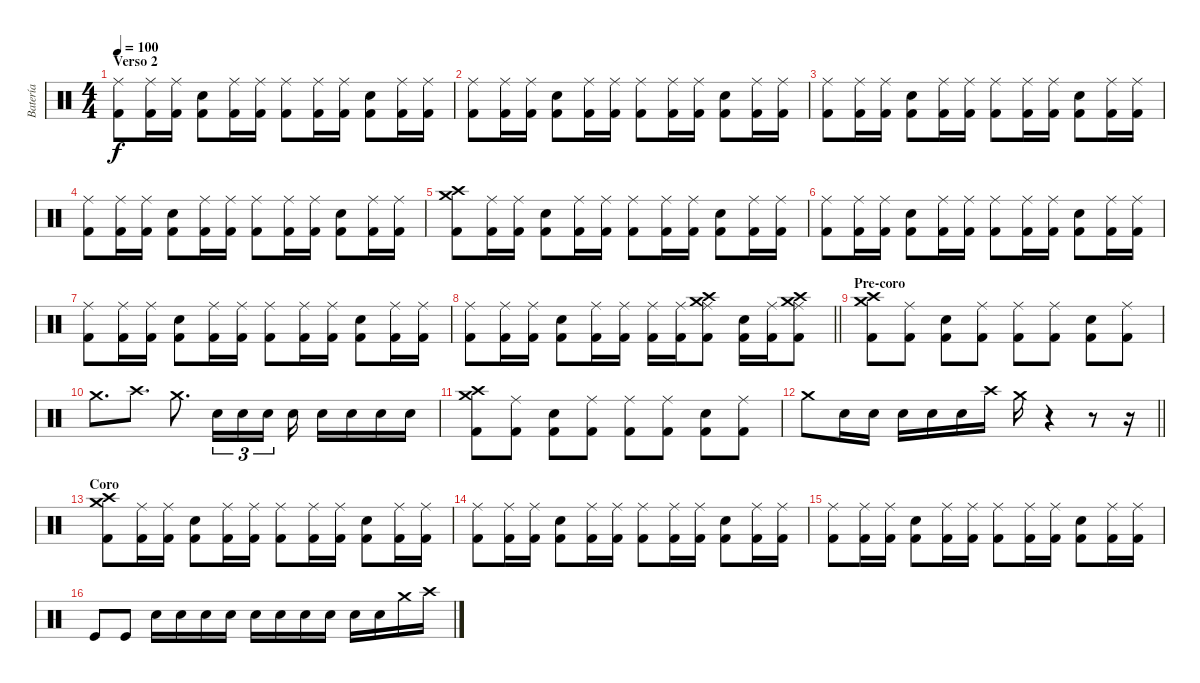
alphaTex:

\track ("Batería" "Batería") {instrument percussion}
\staff {score}
\articulation defaults
\ts (4 4)
\section ("" "Verso 2")
\tempo 100
\clef neutral
\ks c
("Ride (middle)" "Kick (hit) 2").8{dy f} ("Ride (middle)" "Kick (hit) 2").16 ("Ride (middle)" "Kick (hit) 2").16 ("Electric Snare (hit)" "Kick (hit) 2").8 ("Ride (middle)" "Kick (hit) 2").16 ("Ride (middle)" "Kick (hit) 2").16 ("Ride (middle)" "Kick (hit) 2").8 ("Ride (middle)" "Kick (hit) 2").16 ("Ride (middle)" "Kick (hit) 2").16 ("Electric Snare (hit)" "Kick (hit) 2").8 ("Ride (middle)" "Kick (hit) 2").16 ("Ride (middle)" "Kick (hit) 2").16 |
("Ride (middle)" "Kick (hit) 2").8 ("Ride (middle)" "Kick (hit) 2").16 ("Ride (middle)" "Kick (hit) 2").16 ("Electric Snare (hit)" "Kick (hit) 2").8 ("Ride (middle)" "Kick (hit) 2").16 ("Ride (middle)" "Kick (hit) 2").16 ("Ride (middle)" "Kick (hit) 2").8 ("Ride (middle)" "Kick (hit) 2").16 ("Ride (middle)" "Kick (hit) 2").16 ("Electric Snare (hit)" "Kick (hit) 2").8 ("Ride (middle)" "Kick (hit) 2").16 ("Ride (middle)" "Kick (hit) 2").16 |
("Ride (middle)" "Kick (hit) 2").8 ("Ride (middle)" "Kick (hit) 2").16 ("Ride (middle)" "Kick (hit) 2").16 ("Electric Snare (hit)" "Kick (hit) 2").8 ("Ride (middle)" "Kick (hit) 2").16 ("Ride (middle)" "Kick (hit) 2").16 ("Ride (middle)" "Kick (hit) 2").8 ("Ride (middle)" "Kick (hit) 2").16 ("Ride (middle)" "Kick (hit) 2").16 ("Electric Snare (hit)" "Kick (hit) 2").8 ("Ride (middle)" "Kick (hit) 2").16 ("Ride (middle)" "Kick (hit) 2").16 |
("Ride (middle)" "Kick (hit) 2").8 ("Ride (middle)" "Kick (hit) 2").16 ("Ride (middle)" "Kick (hit) 2").16 ("Electric Snare (hit)" "Kick (hit) 2").8 ("Ride (middle)" "Kick (hit) 2").16 ("Ride (middle)" "Kick (hit) 2").16 ("Ride (middle)" "Kick (hit) 2").8 ("Ride (middle)" "Kick (hit) 2").16 ("Ride (middle)" "Kick (hit) 2").16 ("Electric Snare (hit)" "Kick (hit) 2").8 ("Ride (middle)" "Kick (hit) 2").16 ("Ride (middle)" "Kick (hit) 2").16 |
("Crash medium (hit)" "Crash high (hit)" "Kick (hit) 2").8 ("Ride (middle)" "Kick (hit) 2").16 ("Ride (middle)" "Kick (hit) 2").16 ("Electric Snare (hit)" "Kick (hit) 2").8 ("Ride (middle)" "Kick (hit) 2").16 ("Ride (middle)" "Kick (hit) 2").16 ("Ride (middle)" "Kick (hit) 2").8 ("Ride (middle)" "Kick (hit) 2").16 ("Ride (middle)" "Kick (hit) 2").16 ("Electric Snare (hit)" "Kick (hit) 2").8 ("Ride (middle)" "Kick (hit) 2").16 ("Ride (middle)" "Kick (hit) 2").16 |
("Ride (middle)" "Kick (hit) 2").8 ("Ride (middle)" "Kick (hit) 2").16 ("Ride (middle)" "Kick (hit) 2").16 ("Electric Snare (hit)" "Kick (hit) 2").8 ("Ride (middle)" "Kick (hit) 2").16 ("Ride (middle)" "Kick (hit) 2").16 ("Ride (middle)" "Kick (hit) 2").8 ("Ride (middle)" "Kick (hit) 2").16 ("Ride (middle)" "Kick (hit) 2").16 ("Electric Snare (hit)" "Kick (hit) 2").8 ("Ride (middle)" "Kick (hit) 2").16 ("Ride (middle)" "Kick (hit) 2").16 |
("Ride (middle)" "Kick (hit) 2").8 ("Ride (middle)" "Kick (hit) 2").16 ("Ride (middle)" "Kick (hit) 2").16 ("Electric Snare (hit)" "Kick (hit) 2").8 ("Ride (middle)" "Kick (hit) 2").16 ("Ride (middle)" "Kick (hit) 2").16 ("Ride (middle)" "Kick (hit) 2").8 ("Ride (middle)" "Kick (hit) 2").16 ("Ride (middle)" "Kick (hit) 2").16 ("Electric Snare (hit)" "Kick (hit) 2").8 ("Ride (middle)" "Kick (hit) 2").16 ("Ride (middle)" "Kick (hit) 2").16 |
\barLineRight lightlight
("Ride (middle)" "Kick (hit) 2").8 ("Ride (middle)" "Kick (hit) 2").16 ("Ride (middle)" "Kick (hit) 2").16 ("Electric Snare (hit)" "Kick (hit) 2").8 ("Ride (middle)" "Kick (hit) 2").16 ("Ride (middle)" "Kick (hit) 2").16 ("Ride (middle)" "Kick (hit) 2").16 ("Ride (middle)" "Kick (hit) 2").16 ("Crash medium (hit)" "Crash high (hit)" "Ride (middle)" "Kick (hit) 2").8 ("Electric Snare (hit)" "Kick (hit) 2").16 ("Ride (middle)" "Kick (hit) 2").16 ("Crash medium (hit)" "Crash high (hit)" "Ride (middle)" "Kick (hit) 2").8 |
\section ("" "Pre-coro")
("Crash medium (hit)" "Crash high (hit)" "Kick (hit) 2").8 ("Ride (middle)" "Kick (hit) 2").8 ("Electric Snare (hit)" "Kick (hit) 2").8 ("Ride (middle)" "Kick (hit) 2").8 ("Ride (middle)" "Kick (hit) 2").8 ("Ride (middle)" "Kick (hit) 2").8 ("Electric Snare (hit)" "Kick (hit) 2").8 ("Ride (middle)" "Kick (hit) 2").8 |
"Crash medium (hit)".8{d} "Crash high (hit)".8{d} "Crash medium (hit)".8{d} "Electric Snare (hit)".16{tu (3 2)} "Electric Snare (hit)".16{tu (3 2)} "Electric Snare (hit)".16{tu (3 2) beam splitsecondary} "Electric Snare (hit)".16 "Electric Snare (hit)".16 "Electric Snare (hit)".16 "Electric Snare (hit)".16 "Electric Snare (hit)".16 |
("Crash medium (hit)" "Crash high (hit)" "Kick (hit) 2").8 ("Ride (middle)" "Kick (hit) 2").8 ("Electric Snare (hit)" "Kick (hit) 2").8 ("Ride (middle)" "Kick (hit) 2").8 ("Ride (middle)" "Kick (hit) 2").8 ("Ride (middle)" "Kick (hit) 2").8 ("Electric Snare (hit)" "Kick (hit) 2").8 ("Ride (middle)" "Kick (hit) 2").8 |
\barLineRight lightlight "Crash medium (hit)".8 "Electric Snare (hit)".16 "Electric Snare (hit)".16 "Electric Snare (hit)".16 "Electric Snare (hit)".16 "Electric Snare (hit)".16 "Crash high (hit)".16 "Crash medium (hit)".16
r.4 r.8 r.16 |
\section ("" "Coro")
("Crash medium (hit)" "Crash high (hit)" "Kick (hit) 2").8 ("Ride (middle)" "Kick (hit) 2").16 ("Ride (middle)" "Kick (hit) 2").16 ("Electric Snare (hit)" "Kick (hit) 2").8 ("Ride (middle)" "Kick (hit) 2").16 ("Ride (middle)" "Kick (hit) 2").16 ("Ride (middle)" "Kick (hit) 2").8 ("Ride (middle)" "Kick (hit) 2").16 ("Ride (middle)" "Kick (hit) 2").16 ("Electric Snare (hit)" "Kick (hit) 2").8 ("Ride (middle)" "Kick (hit) 2").16 ("Ride (middle)" "Kick (hit) 2").16 |
("Ride (middle)" "Kick (hit) 2").8 ("Ride (middle)" "Kick (hit) 2").16 ("Ride (middle)" "Kick (hit) 2").16 ("Electric Snare (hit)" "Kick (hit) 2").8 ("Ride (middle)" "Kick (hit) 2").16 ("Ride (middle)" "Kick (hit) 2").16 ("Ride (middle)" "Kick (hit) 2").8 ("Ride (middle)" "Kick (hit) 2").16 ("Ride (middle)" "Kick (hit) 2").16 ("Electric Snare (hit)" "Kick (hit) 2").8 ("Ride (middle)" "Kick (hit) 2").16 ("Ride (middle)" "Kick (hit) 2").16 |
("Ride (middle)" "Kick (hit) 2").8 ("Ride (middle)" "Kick (hit) 2").16 ("Ride (middle)" "Kick (hit) 2").16 ("Electric Snare (hit)" "Kick (hit) 2").8 ("Ride (middle)" "Kick (hit) 2").16 ("Ride (middle)" "Kick (hit) 2").16 ("Ride (middle)" "Kick (hit) 2").8 ("Ride (middle)" "Kick (hit) 2").16 ("Ride (middle)" "Kick (hit) 2").16 ("Electric Snare (hit)" "Kick (hit) 2").8 ("Ride (middle)" "Kick (hit) 2").16 ("Ride (middle)" "Kick (hit) 2").16 |
"Kick (hit)".8 "Kick (hit)".8 "Snare (hit) 2".16 "Snare (hit) 2".16 "Snare (hit) 2".16 "Snare (hit) 2".16 "Electric Snare (hit)".16 "Electric Snare (hit)".16 "Electric Snare (hit)".16 "Electric Snare (hit)".16 "Snare (hit) 2".16 "Snare (hit) 2".16 "Crash medium (hit)".16 "Crash high (hit)".16
